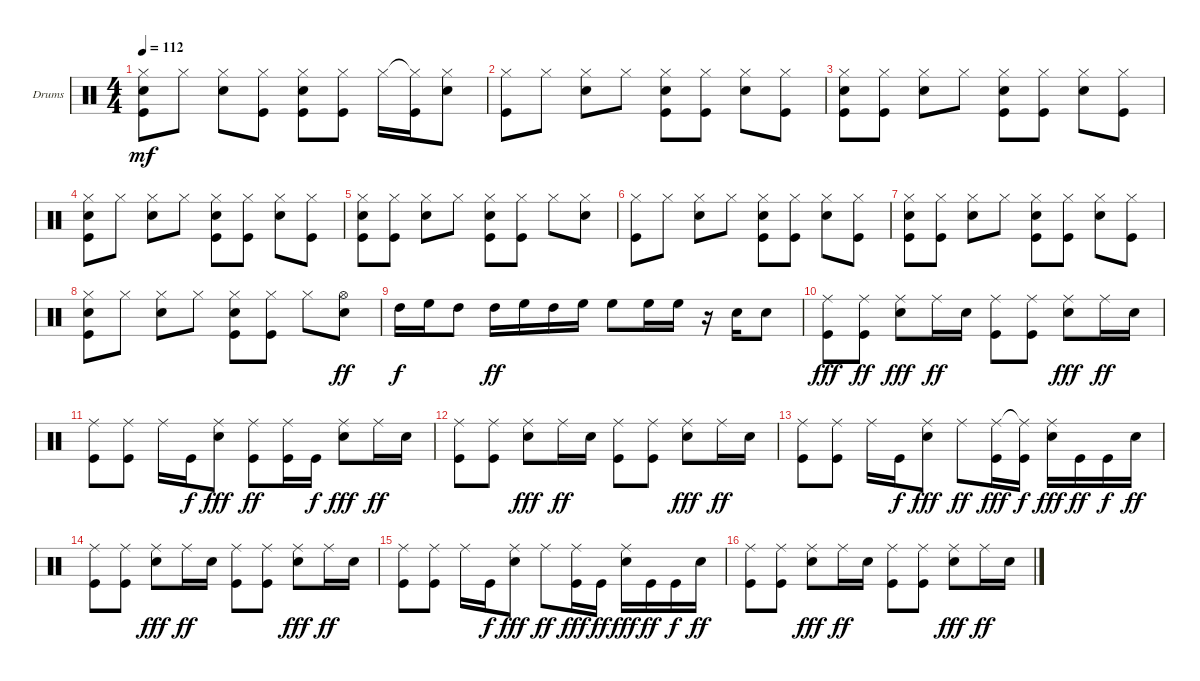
\bracketExtendMode groupsimilarinstruments
\firstSystemTrackNameOrientation horizontal
\otherSystemsTrackNameOrientation horizontal
\track ("Drumkit" "Drums") {instrument percussion}
\staff {score}
\articulation defaults
\ts (4 4)
\tempo 112
\clef neutral
\ks c
("Hi-Hat (closed)" "Snare (hit) 2" "Kick (hit)").8{dy mf} "Hi-Hat (closed)".8 ("Hi-Hat (closed)" "Snare (hit) 2").8 ("Hi-Hat (closed)" "Kick (hit)").8 ("Hi-Hat (closed)" "Snare (hit) 2" "Kick (hit)").8 ("Hi-Hat (closed)" "Kick (hit)").8 "Hi-Hat (closed)".16 ("Hi-Hat (closed)"{t} "Kick (hit)").16 ("Hi-Hat (closed)" "Snare (hit) 2").8 |
("Hi-Hat (closed)" "Kick (hit)").8 "Hi-Hat (closed)".8 ("Hi-Hat (closed)" "Snare (hit) 2").8 "Hi-Hat (closed)".8 ("Hi-Hat (closed)" "Snare (hit) 2" "Kick (hit)").8 ("Hi-Hat (closed)" "Kick (hit)").8 ("Hi-Hat (closed)" "Snare (hit) 2").8 ("Hi-Hat (closed)" "Kick (hit)").8 |
("Hi-Hat (closed)" "Snare (hit) 2" "Kick (hit)").8 ("Hi-Hat (closed)" "Kick (hit)").8 ("Hi-Hat (closed)" "Snare (hit) 2").8 "Hi-Hat (closed)".8 ("Hi-Hat (closed)" "Snare (hit) 2" "Kick (hit)").8 ("Hi-Hat (closed)" "Kick (hit)").8 ("Hi-Hat (closed)" "Snare (hit) 2").8 ("Hi-Hat (closed)" "Kick (hit)").8 |
("Hi-Hat (closed)" "Snare (hit) 2" "Kick (hit)").8 "Hi-Hat (closed)".8 ("Hi-Hat (closed)" "Snare (hit) 2").8 "Hi-Hat (closed)".8 ("Hi-Hat (closed)" "Snare (hit) 2" "Kick (hit)").8 ("Hi-Hat (closed)" "Kick (hit)").8 ("Hi-Hat (closed)" "Snare (hit) 2").8 ("Hi-Hat (closed)" "Kick (hit)").8 |
("Hi-Hat (closed)" "Snare (hit) 2" "Kick (hit)").8 ("Hi-Hat (closed)" "Kick (hit)").8 ("Hi-Hat (closed)" "Snare (hit) 2").8 "Hi-Hat (closed)".8 ("Hi-Hat (closed)" "Snare (hit) 2" "Kick (hit)").8 ("Hi-Hat (closed)" "Kick (hit)").8 "Hi-Hat (closed)".8 ("Hi-Hat (closed)" "Snare (hit) 2").8 |
("Hi-Hat (closed)" "Kick (hit)").8 "Hi-Hat (closed)".8 ("Hi-Hat (closed)" "Snare (hit) 2").8 "Hi-Hat (closed)".8 ("Hi-Hat (closed)" "Snare (hit) 2" "Kick (hit)").8 ("Hi-Hat (closed)" "Kick (hit)").8 ("Hi-Hat (closed)" "Snare (hit) 2").8 ("Hi-Hat (closed)" "Kick (hit)").8 |
("Hi-Hat (closed)" "Snare (hit) 2" "Kick (hit)").8 ("Hi-Hat (closed)" "Kick (hit)").8 ("Hi-Hat (closed)" "Snare (hit) 2").8 "Hi-Hat (closed)".8 ("Hi-Hat (closed)" "Snare (hit) 2" "Kick (hit)").8 ("Hi-Hat (closed)" "Kick (hit)").8 ("Hi-Hat (closed)" "Snare (hit) 2").8 ("Hi-Hat (closed)" "Kick (hit)").8 |
("Hi-Hat (closed)" "Snare (hit) 2" "Kick (hit)").8 "Hi-Hat (closed)".8 ("Hi-Hat (closed)" "Snare (hit) 2").8 "Hi-Hat (closed)".8 ("Hi-Hat (closed)" "Snare (hit) 2" "Kick (hit)").8 ("Hi-Hat (closed)" "Kick (hit)").8 "Hi-Hat (closed)".8 ("Hi-Hat (open)" "Snare (hit) 2").8{dy ff} |
"High Tom (hit)".16{dy f} "High Floor Tom (hit)".16 "High Tom (hit)".8 "High Tom (hit)".16{dy ff} "High Floor Tom (hit)".16 "High Tom (hit)".16 "High Floor Tom (hit)".16 "High Floor Tom (hit)".8 "High Floor Tom (hit)".16 "High Floor Tom (hit)".16 r.16 "Snare (hit) 2".16 "Snare (hit) 2".8 |
("Ride (middle)" "Kick (hit)").8{dy fff} ("Ride (middle)" "Kick (hit)").8{dy ff} ("Ride (middle)" "Snare (hit) 2").8{dy fff} "Ride (middle)".16{dy ff} "Snare (hit) 2".16 ("Ride (middle)" "Kick (hit)").8 ("Ride (middle)" "Kick (hit)").8 ("Ride (middle)" "Snare (hit) 2").8{dy fff} "Ride (middle)".16{dy ff} "Snare (hit) 2".16 |
("Ride (middle)" "Kick (hit)").8 ("Ride (middle)" "Kick (hit)").8 "Ride (middle)".16 "Kick (hit)".16{dy f} ("Ride (middle)" "Snare (hit) 2").8{dy fff} ("Ride (middle)" "Kick (hit)").8{dy ff} ("Ride (middle)" "Kick (hit)").16 "Kick (hit)".16{dy f} ("Ride (middle)" "Snare (hit) 2").8{dy fff} "Ride (middle)".16{dy ff} "Snare (hit) 2".16 |
("Ride (middle)" "Kick (hit)").8 ("Ride (middle)" "Kick (hit)").8 ("Ride (middle)" "Snare (hit) 2").8{dy fff} "Ride (middle)".16{dy ff} "Snare (hit) 2".16 ("Ride (middle)" "Kick (hit)").8 ("Ride (middle)" "Kick (hit)").8 ("Ride (middle)" "Snare (hit) 2").8{dy fff} "Ride (middle)".16{dy ff} "Snare (hit) 2".16 |
("Ride (middle)" "Kick (hit)").8 ("Ride (middle)" "Kick (hit)").8 "Ride (middle)".16 "Kick (hit)".16{dy f} ("Ride (middle)" "Snare (hit) 2").8{dy fff} "Ride (middle)".8{dy ff} ("Ride (middle)" "Kick (hit)").16{dy fff} ("Ride (middle)"{t} "Kick (hit)").16{dy f} ("Ride (middle)" "Snare (hit) 2").16{dy fff} "Kick (hit)".16{dy ff} "Kick (hit)".16{dy f} "Snare (hit) 2".16{dy ff} |
("Ride (middle)" "Kick (hit)").8 ("Ride (middle)" "Kick (hit)").8 ("Ride (middle)" "Snare (hit) 2").8{dy fff} "Ride (middle)".16{dy ff} "Snare (hit) 2".16 ("Ride (middle)" "Kick (hit)").8 ("Ride (middle)" "Kick (hit)").8 ("Ride (middle)" "Snare (hit) 2").8{dy fff} "Ride (middle)".16{dy ff} "Snare (hit) 2".16 |
("Ride (middle)" "Kick (hit)").8 ("Ride (middle)" "Kick (hit)").8 "Ride (middle)".16 "Kick (hit)".16{dy f} ("Ride (middle)" "Snare (hit) 2").8{dy fff} "Ride (middle)".8{dy ff} ("Ride (middle)" "Kick (hit)").16{dy fff} "Kick (hit)".16{dy ff} ("Ride (middle)" "Snare (hit) 2").16{dy fff} "Kick (hit)".16{dy ff} "Kick (hit)".16{dy f} "Snare (hit) 2".16{dy ff} |
("Ride (middle)" "Kick (hit)").8 ("Ride (middle)" "Kick (hit)").8 ("Ride (middle)" "Snare (hit) 2").8{dy fff} "Ride (middle)".16{dy ff} "Snare (hit) 2".16 ("Ride (middle)" "Kick (hit)").8 ("Ride (middle)" "Kick (hit)").8 ("Ride (middle)" "Snare (hit) 2").8{dy fff} "Ride (middle)".16{dy ff} "Snare (hit) 2".16
